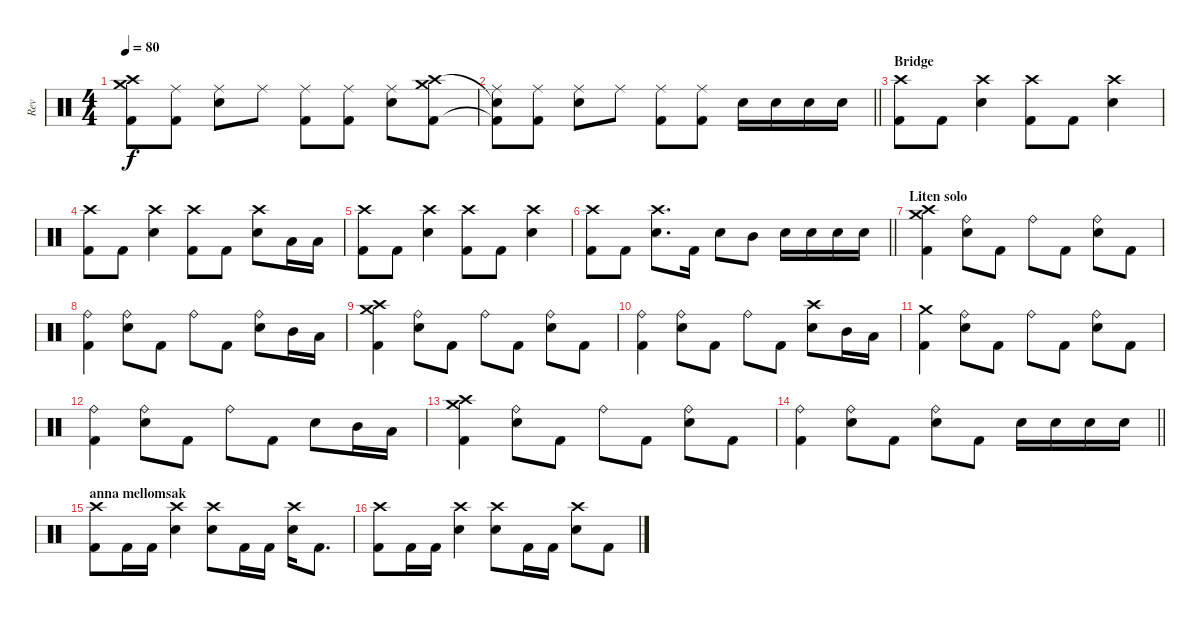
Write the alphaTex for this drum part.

\track ("Rev" "Rev") {instrument percussion}
\staff {score}
\articulation defaults
\ts (4 4)
\tempo 80
\clef neutral
\ks c
("Crash high (hit)" "Crash medium (hit)" "Kick (hit) 2").8{dy f} ("Ride (middle)" "Kick (hit) 2").8 ("Ride (middle)" "Electric Snare (hit)").8 "Ride (middle)".8 ("Ride (middle)" "Kick (hit) 2").8 ("Ride (middle)" "Kick (hit) 2").8 ("Ride (middle)" "Electric Snare (hit)").8 ("Crash high (hit)" "Crash medium (hit)" "Kick (hit) 2").8 |
\barLineRight lightlight
("Snare (hit)"{t} "Ride (middle)" "Kick (hit) 2"{t}).8 ("Ride (middle)" "Kick (hit) 2").8 ("Ride (middle)" "Electric Snare (hit)").8 "Ride (middle)".8 ("Ride (middle)" "Kick (hit) 2").8 ("Ride (middle)" "Kick (hit) 2").8 "Electric Snare (hit)".16 "Electric Snare (hit)".16 "Electric Snare (hit)".16 "Electric Snare (hit)".16 |
\section ("" "Bridge")
("Crash high (hit)" "Kick (hit) 2").8 "Kick (hit) 2".8 ("Crash high (hit)" "Electric Snare (hit)").4 ("Crash high (hit)" "Kick (hit) 2").8 "Kick (hit) 2".8 ("Crash high (hit)" "Electric Snare (hit)").4 |
("Crash high (hit)" "Kick (hit) 2").8 "Kick (hit) 2".8 ("Crash high (hit)" "Electric Snare (hit)").4 ("Crash high (hit)" "Kick (hit) 2").8 "Kick (hit) 2".8 ("Crash high (hit)" "Electric Snare (hit)").8 "Low Tom (hit)".16 "Low Floor Tom (hit)".16 |
("Crash high (hit)" "Kick (hit) 2").8 "Kick (hit) 2".8 ("Crash high (hit)" "Electric Snare (hit)").4 ("Crash high (hit)" "Kick (hit) 2").8 "Kick (hit) 2".8 ("Crash high (hit)" "Electric Snare (hit)").4 |
\barLineRight lightlight
("Crash high (hit)" "Kick (hit) 2").8 "Kick (hit) 2".8 ("Crash high (hit)" "Electric Snare (hit)").8{d} "Kick (hit) 2".16 "Electric Snare (hit)".8 "Mid Tom (hit)".8 "Electric Snare (hit)".16 "Electric Snare (hit)".16 "Electric Snare (hit)".16 "Electric Snare (hit)".16 |
\section ("" "Liten solo")
("Crash medium (hit)" "Crash high (hit)" "Kick (hit) 2").4 ("Ride (bell)" "Electric Snare (hit)").8 "Kick (hit) 2".8 "Ride (bell)".8 "Kick (hit) 2".8 ("Ride (bell)" "Electric Snare (hit)").8 "Kick (hit) 2".8 |
("Ride (bell)" "Kick (hit) 2").4 ("Ride (bell)" "Electric Snare (hit)").8 "Kick (hit) 2".8 "Ride (bell)".8 "Kick (hit) 2".8 ("Ride (bell)" "Electric Snare (hit)").8 "Mid Tom (hit)".16 "Low Tom (hit)".16 |
("Crash medium (hit)" "Crash high (hit)" "Kick (hit) 2").4 ("Ride (bell)" "Electric Snare (hit)").8 "Kick (hit) 2".8 "Ride (bell)".8 "Kick (hit) 2".8 ("Ride (bell)" "Electric Snare (hit)").8 "Kick (hit) 2".8 |
("Ride (bell)" "Kick (hit) 2").4 ("Ride (bell)" "Electric Snare (hit)").8 "Kick (hit) 2".8 "Ride (bell)".8 "Kick (hit) 2".8 ("Crash high (hit)" "Electric Snare (hit)").8 "Mid Tom (hit)".16 "Low Tom (hit)".16 |
("Crash medium (hit)" "Kick (hit) 2").4 ("Ride (bell)" "Electric Snare (hit)").8 "Kick (hit) 2".8 "Ride (bell)".8 "Kick (hit) 2".8 ("Ride (bell)" "Electric Snare (hit)").8 "Kick (hit) 2".8 |
("Ride (bell)" "Kick (hit) 2").4 ("Ride (bell)" "Electric Snare (hit)").8 "Kick (hit) 2".8 "Ride (bell)".8 "Kick (hit) 2".8 "Electric Snare (hit)".8 "Mid Tom (hit)".16 "Low Tom (hit)".16 |
("Crash medium (hit)" "Crash high (hit)" "Kick (hit) 2").4 ("Ride (bell)" "Electric Snare (hit)").8 "Kick (hit) 2".8 "Ride (bell)".8 "Kick (hit) 2".8 ("Ride (bell)" "Electric Snare (hit)").8 "Kick (hit) 2".8 |
\barLineRight lightlight
("Ride (bell)" "Kick (hit) 2").4 ("Ride (bell)" "Electric Snare (hit)").8 "Kick (hit) 2".8 ("Ride (bell)" "Electric Snare (hit)").8 "Kick (hit) 2".8 "Electric Snare (hit)".16 "Electric Snare (hit)".16 "Electric Snare (hit)".16 "Electric Snare (hit)".16 |
\section ("" "anna mellomsak")
("Crash high (hit)" "Kick (hit) 2").8 "Kick (hit) 2".16 "Kick (hit) 2".16 ("Crash high (hit)" "Electric Snare (hit)").4 ("Crash high (hit)" "Electric Snare (hit)").8 "Kick (hit) 2".16 "Kick (hit) 2".16 ("Crash high (hit)" "Electric Snare (hit)").16 "Kick (hit) 2".8{d} |
("Crash high (hit)" "Kick (hit) 2").8 "Kick (hit) 2".16 "Kick (hit) 2".16 ("Crash high (hit)" "Electric Snare (hit)").4 ("Crash high (hit)" "Electric Snare (hit)").8 "Kick (hit) 2".16 "Kick (hit) 2".16 ("Crash high (hit)" "Electric Snare (hit)").8 "Kick (hit) 2".8
